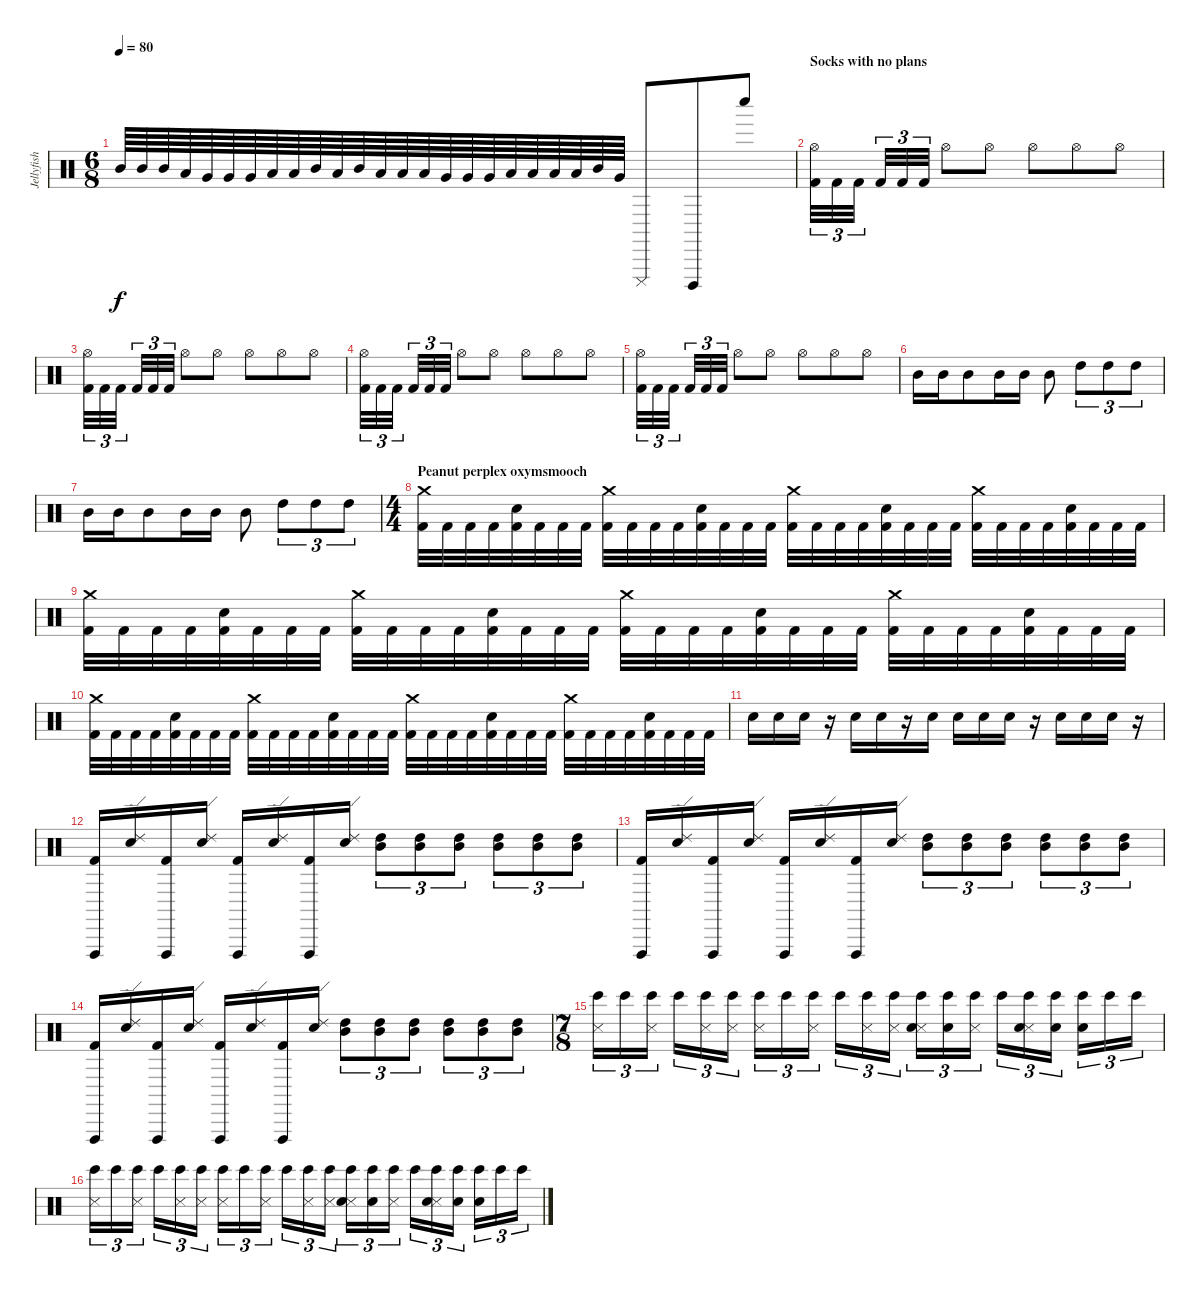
\track ("Jellyfish" "Jellyfish") {instrument percussion}
\staff {score}
\articulation defaults
\ts (6 8)
\tempo 80
\clef neutral
\ks c "Mid Tom (hit)".64{dy f} "Mid Tom (hit)".64 "Mid Tom (hit)".64 "Low Tom (hit)".64 "Very Low Tom (hit)".64 "Very Low Tom (hit)".64 "Very Low Tom (hit)".64 "Low Tom (hit)".64 "Low Tom (hit)".64 "Mid Tom (hit)".64 "Low Tom (hit)".64 "Mid Tom (hit)".64 "Low Tom (hit)".64 "Low Tom (hit)".64 "Low Tom (hit)".64 "Very Low Tom (hit)".64 "Very Low Tom (hit)".64 "Very Low Tom (hit)".64 "Low Tom (hit)".64 "Low Tom (hit)".64 "Low Tom (hit)".64 "Low Tom (hit)".64 "Mid Tom (hit)".64 "Very Low Tom (hit)".64 "Cuica (mute)".8 "Cuica (open)".8 "Whistle low (hit)".8
|
\section ("" "Socks with no plans")
("Hi-Hat (open)" "Kick (hit) 2").32{tu (3 2)} "Kick (hit) 2".32{tu (3 2)} "Kick (hit) 2".32{tu (3 2)} "Kick (hit) 2".32{tu (3 2)} "Kick (hit) 2".32{tu (3 2)} "Kick (hit) 2".32{tu (3 2)} "Hi-Hat (open)".8 "Hi-Hat (open)".8 "Hi-Hat (open)".8 "Hi-Hat (open)".8 "Hi-Hat (open)".8 |
("Hi-Hat (open)" "Kick (hit) 2").32{tu (3 2)} "Kick (hit) 2".32{tu (3 2)} "Kick (hit) 2".32{tu (3 2)} "Kick (hit) 2".32{tu (3 2)} "Kick (hit) 2".32{tu (3 2)} "Kick (hit) 2".32{tu (3 2)} "Hi-Hat (open)".8 "Hi-Hat (open)".8 "Hi-Hat (open)".8 "Hi-Hat (open)".8 "Hi-Hat (open)".8 |
("Hi-Hat (open)" "Kick (hit) 2").32{tu (3 2)} "Kick (hit) 2".32{tu (3 2)} "Kick (hit) 2".32{tu (3 2)} "Kick (hit) 2".32{tu (3 2)} "Kick (hit) 2".32{tu (3 2)} "Kick (hit) 2".32{tu (3 2)} "Hi-Hat (open)".8 "Hi-Hat (open)".8 "Hi-Hat (open)".8 "Hi-Hat (open)".8 "Hi-Hat (open)".8 |
("Hi-Hat (open)" "Kick (hit) 2").32{tu (3 2)} "Kick (hit) 2".32{tu (3 2)} "Kick (hit) 2".32{tu (3 2)} "Kick (hit) 2".32{tu (3 2)} "Kick (hit) 2".32{tu (3 2)} "Kick (hit) 2".32{tu (3 2)} "Hi-Hat (open)".8 "Hi-Hat (open)".8 "Hi-Hat (open)".8 "Hi-Hat (open)".8 "Hi-Hat (open)".8 |
"Mid Tom (hit)".16 "Mid Tom (hit)".16 "Mid Tom (hit)".8 "Mid Tom (hit)".16 "Mid Tom (hit)".16 "Mid Tom (hit)".8 "High Tom (hit)".8{tu (3 2)} "High Tom (hit)".8{tu (3 2)} "High Tom (hit)".8{tu (3 2)} |
"Mid Tom (hit)".16 "Mid Tom (hit)".16 "Mid Tom (hit)".8 "Mid Tom (hit)".16 "Mid Tom (hit)".16 "Mid Tom (hit)".8 "High Tom (hit)".8{tu (3 2)} "High Tom (hit)".8{tu (3 2)} "High Tom (hit)".8{tu (3 2)} |
\ts (4 4)
\section ("" "Peanut perplex oxymsmooch")
("Crash medium (hit)" "Kick (hit) 2").32 "Kick (hit) 2".32 "Kick (hit) 2".32 "Kick (hit) 2".32 ("Snare (hit) 2" "Kick (hit) 2").32 "Kick (hit) 2".32 "Kick (hit) 2".32 "Kick (hit) 2".32 ("Crash medium (hit)" "Kick (hit) 2").32 "Kick (hit) 2".32 "Kick (hit) 2".32 "Kick (hit) 2".32 ("Snare (hit) 2" "Kick (hit) 2").32 "Kick (hit) 2".32 "Kick (hit) 2".32 "Kick (hit) 2".32 ("Crash medium (hit)" "Kick (hit) 2").32 "Kick (hit) 2".32 "Kick (hit) 2".32 "Kick (hit) 2".32 ("Snare (hit) 2" "Kick (hit) 2").32 "Kick (hit) 2".32 "Kick (hit) 2".32 "Kick (hit) 2".32 ("Crash medium (hit)" "Kick (hit) 2").32 "Kick (hit) 2".32 "Kick (hit) 2".32 "Kick (hit) 2".32 ("Snare (hit) 2" "Kick (hit) 2").32 "Kick (hit) 2".32 "Kick (hit) 2".32 "Kick (hit) 2".32 |
("Crash medium (hit)" "Kick (hit) 2").32 "Kick (hit) 2".32 "Kick (hit) 2".32 "Kick (hit) 2".32 ("Snare (hit) 2" "Kick (hit) 2").32 "Kick (hit) 2".32 "Kick (hit) 2".32 "Kick (hit) 2".32 ("Crash medium (hit)" "Kick (hit) 2").32 "Kick (hit) 2".32 "Kick (hit) 2".32 "Kick (hit) 2".32 ("Snare (hit) 2" "Kick (hit) 2").32 "Kick (hit) 2".32 "Kick (hit) 2".32 "Kick (hit) 2".32 ("Crash medium (hit)" "Kick (hit) 2").32 "Kick (hit) 2".32 "Kick (hit) 2".32 "Kick (hit) 2".32 ("Snare (hit) 2" "Kick (hit) 2").32 "Kick (hit) 2".32 "Kick (hit) 2".32 "Kick (hit) 2".32 ("Crash medium (hit)" "Kick (hit) 2").32 "Kick (hit) 2".32 "Kick (hit) 2".32 "Kick (hit) 2".32 ("Snare (hit) 2" "Kick (hit) 2").32 "Kick (hit) 2".32 "Kick (hit) 2".32 "Kick (hit) 2".32 |
("Crash medium (hit)" "Kick (hit) 2").32 "Kick (hit) 2".32 "Kick (hit) 2".32 "Kick (hit) 2".32 ("Snare (hit) 2" "Kick (hit) 2").32 "Kick (hit) 2".32 "Kick (hit) 2".32 "Kick (hit) 2".32 ("Crash medium (hit)" "Kick (hit) 2").32 "Kick (hit) 2".32 "Kick (hit) 2".32 "Kick (hit) 2".32 ("Snare (hit) 2" "Kick (hit) 2").32 "Kick (hit) 2".32 "Kick (hit) 2".32 "Kick (hit) 2".32 ("Crash medium (hit)" "Kick (hit) 2").32 "Kick (hit) 2".32 "Kick (hit) 2".32 "Kick (hit) 2".32 ("Snare (hit) 2" "Kick (hit) 2").32 "Kick (hit) 2".32 "Kick (hit) 2".32 "Kick (hit) 2".32 ("Crash medium (hit)" "Kick (hit) 2").32 "Kick (hit) 2".32 "Kick (hit) 2".32 "Kick (hit) 2".32 ("Snare (hit) 2" "Kick (hit) 2").32 "Kick (hit) 2".32 "Kick (hit) 2".32 "Kick (hit) 2".32 |
"Snare (hit) 2".16 "Snare (hit) 2".16 "Snare (hit) 2".16 r.16 "Snare (hit) 2".16 "Snare (hit) 2".16 r.16 "Snare (hit) 2".16 "Snare (hit) 2".16 "Snare (hit) 2".16 "Snare (hit) 2".16 r.16 "Snare (hit) 2".16 "Snare (hit) 2".16 "Snare (hit) 2".16 r.16 |
("Vibraslap (hit)" "Kick (hit) 2").16 ("Ride (edge) 2" "Snare (hit) 2").16 ("Vibraslap (hit)" "Kick (hit) 2").16 ("Ride (edge) 2" "Snare (hit) 2").16 ("Vibraslap (hit)" "Kick (hit) 2").16 ("Ride (edge) 2" "Snare (hit) 2").16 ("Vibraslap (hit)" "Kick (hit) 2").16 ("Ride (edge) 2" "Snare (hit) 2").16 ("Mid Tom (hit)" "High Tom (hit)").8{tu (3 2)} ("Mid Tom (hit)" "High Tom (hit)").8{tu (3 2)} ("Mid Tom (hit)" "High Tom (hit)").8{tu (3 2)} ("Mid Tom (hit)" "High Tom (hit)").8{tu (3 2)} ("Mid Tom (hit)" "High Tom (hit)").8{tu (3 2)} ("Mid Tom (hit)" "High Tom (hit)").8{tu (3 2)} |
("Vibraslap (hit)" "Kick (hit) 2").16 ("Ride (edge) 2" "Snare (hit) 2").16 ("Vibraslap (hit)" "Kick (hit) 2").16 ("Ride (edge) 2" "Snare (hit) 2").16 ("Vibraslap (hit)" "Kick (hit) 2").16 ("Ride (edge) 2" "Snare (hit) 2").16 ("Vibraslap (hit)" "Kick (hit) 2").16 ("Ride (edge) 2" "Snare (hit) 2").16 ("Mid Tom (hit)" "High Tom (hit)").8{tu (3 2)} ("Mid Tom (hit)" "High Tom (hit)").8{tu (3 2)} ("Mid Tom (hit)" "High Tom (hit)").8{tu (3 2)} ("Mid Tom (hit)" "High Tom (hit)").8{tu (3 2)} ("Mid Tom (hit)" "High Tom (hit)").8{tu (3 2)} ("Mid Tom (hit)" "High Tom (hit)").8{tu (3 2)} |
("Vibraslap (hit)" "Kick (hit) 2").16 ("Ride (edge) 2" "Snare (hit) 2").16 ("Vibraslap (hit)" "Kick (hit) 2").16 ("Ride (edge) 2" "Snare (hit) 2").16 ("Vibraslap (hit)" "Kick (hit) 2").16 ("Ride (edge) 2" "Snare (hit) 2").16 ("Vibraslap (hit)" "Kick (hit) 2").16 ("Ride (edge) 2" "Snare (hit) 2").16 ("Mid Tom (hit)" "High Tom (hit)").8{tu (3 2)} ("Mid Tom (hit)" "High Tom (hit)").8{tu (3 2)} ("Mid Tom (hit)" "High Tom (hit)").8{tu (3 2)} ("Mid Tom (hit)" "High Tom (hit)").8{tu (3 2)} ("Mid Tom (hit)" "High Tom (hit)").8{tu (3 2)} ("Mid Tom (hit)" "High Tom (hit)").8{tu (3 2)} |
\ts (7 8)
("Bongo High (hit)" "Snare (side stick) 3").16{tu (3 2)} "Bongo High (hit)".16{tu (3 2)} ("Bongo High (hit)" "Snare (side stick) 3").16{tu (3 2)} "Bongo High (hit)".16{tu (3 2)} ("Bongo High (hit)" "Snare (side stick) 3").16{tu (3 2)} ("Bongo High (hit)" "Snare (side stick) 3").16{tu (3 2)} ("Bongo High (hit)" "Snare (side stick) 3").16{tu (3 2)} "Bongo High (hit)".16{tu (3 2)} ("Bongo High (hit)" "Snare (side stick) 3").16{tu (3 2)} "Bongo High (hit)".16{tu (3 2)} ("Bongo High (hit)" "Snare (side stick) 3").16{tu (3 2)} ("Bongo High (hit)" "Snare (side stick) 3").16{tu (3 2)} ("Bongo High (hit)" "Snare (side stick) 3" "Hand Clap (hit)").16{tu (3 2)} ("Bongo High (hit)" "Hand Clap (hit)").16{tu (3 2)} ("Bongo High (hit)" "Snare (side stick) 3").16{tu (3 2)} "Bongo High (hit)".16{tu (3 2)} ("Bongo High (hit)" "Snare (side stick) 3" "Hand Clap (hit)").16{tu (3 2)} ("Bongo High (hit)" "Hand Clap (hit)").16{tu (3 2)} ("Bongo High (hit)" "Hand Clap (hit)").16{tu (3 2)} "Bongo High (hit)".16{tu (3 2)} "Bongo High (hit)".16{tu (3 2)} |
("Bongo High (hit)" "Snare (side stick) 3").16{tu (3 2)} "Bongo High (hit)".16{tu (3 2)} ("Bongo High (hit)" "Snare (side stick) 3").16{tu (3 2)} "Bongo High (hit)".16{tu (3 2)} ("Bongo High (hit)" "Snare (side stick) 3").16{tu (3 2)} ("Bongo High (hit)" "Snare (side stick) 3").16{tu (3 2)} ("Bongo High (hit)" "Snare (side stick) 3").16{tu (3 2)} "Bongo High (hit)".16{tu (3 2)} ("Bongo High (hit)" "Snare (side stick) 3").16{tu (3 2)} "Bongo High (hit)".16{tu (3 2)} ("Bongo High (hit)" "Snare (side stick) 3").16{tu (3 2)} ("Bongo High (hit)" "Snare (side stick) 3").16{tu (3 2)} ("Bongo High (hit)" "Snare (side stick) 3" "Hand Clap (hit)").16{tu (3 2)} ("Bongo High (hit)" "Hand Clap (hit)").16{tu (3 2)} ("Bongo High (hit)" "Snare (side stick) 3").16{tu (3 2)} "Bongo High (hit)".16{tu (3 2)} ("Bongo High (hit)" "Snare (side stick) 3" "Hand Clap (hit)").16{tu (3 2)} ("Bongo High (hit)" "Hand Clap (hit)").16{tu (3 2)} ("Bongo High (hit)" "Hand Clap (hit)").16{tu (3 2)} "Bongo High (hit)".16{tu (3 2)} "Bongo High (hit)".16{tu (3 2)}
